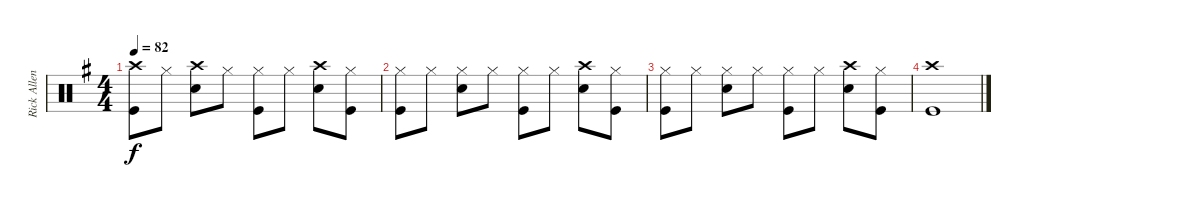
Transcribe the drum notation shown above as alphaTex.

\track ("Rick Allen" "Rick Allen") {instrument percussion}
\staff {score}
\articulation defaults
\ts (4 4)
\tempo 82
\clef neutral
\ks eminor
("Crash high (hit)" "Kick (hit)").8{dy f} "Hi-Hat (closed)".8 ("Crash high (hit)" "Snare (hit) 2").8 "Hi-Hat (closed)".8 ("Hi-Hat (closed)" "Kick (hit)").8 "Hi-Hat (closed)".8 ("Crash high (hit)" "Snare (hit) 2").8 ("Hi-Hat (closed)" "Kick (hit)").8 |
("Hi-Hat (closed)" "Kick (hit)").8 "Hi-Hat (closed)".8 ("Hi-Hat (closed)" "Snare (hit) 2").8 "Hi-Hat (closed)".8 ("Hi-Hat (closed)" "Kick (hit)").8 "Hi-Hat (closed)".8 ("Crash high (hit)" "Snare (hit) 2").8 ("Hi-Hat (closed)" "Kick (hit)").8 |
("Hi-Hat (closed)" "Kick (hit)").8 "Hi-Hat (closed)".8 ("Hi-Hat (closed)" "Snare (hit) 2").8 "Hi-Hat (closed)".8 ("Hi-Hat (closed)" "Kick (hit)").8 "Hi-Hat (closed)".8 ("Crash high (hit)" "Snare (hit) 2").8 ("Hi-Hat (closed)" "Kick (hit)").8 |
("Crash high (hit)" "Kick (hit)").1
